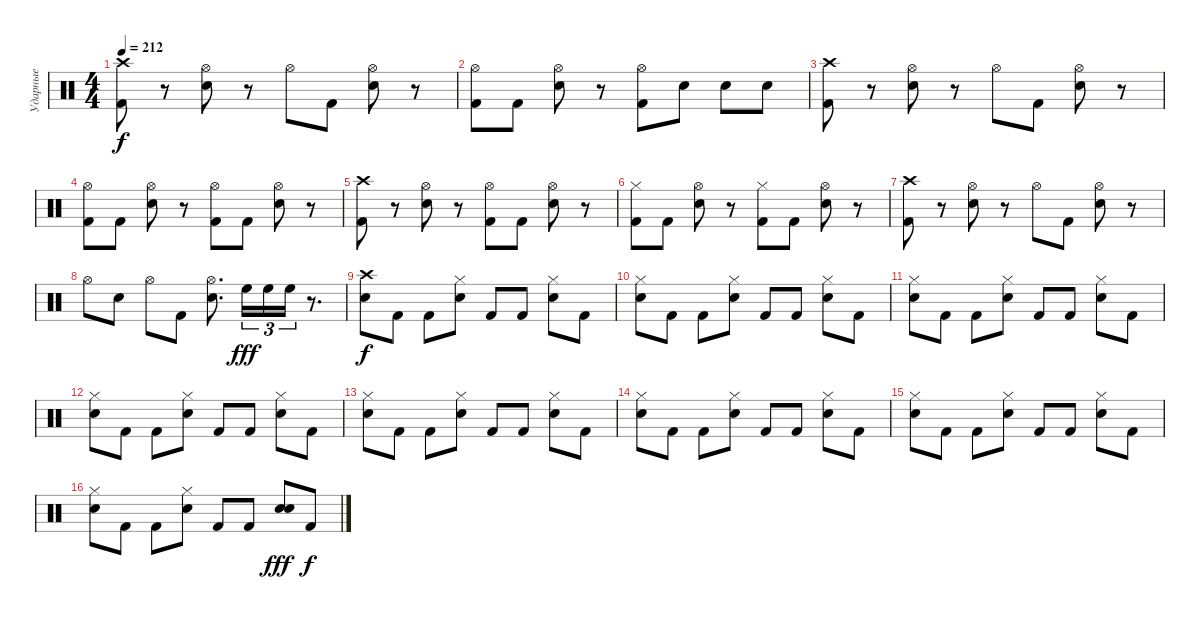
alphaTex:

\track ("Ударные" "Ударные") {instrument percussion}
\staff {score}
\articulation defaults
\ts (4 4)
\tempo 212
\clef neutral
\ks c
("Crash high (hit)" "Kick (hit) 2").8{dy f} r.8 ("Hi-Hat (open)" "Electric Snare (hit)").8 r.8 "Hi-Hat (open)".8 "Kick (hit) 2".8 ("Hi-Hat (open)" "Electric Snare (hit)").8 r.8 |
("Hi-Hat (open)" "Kick (hit) 2").8 "Kick (hit) 2".8 ("Hi-Hat (open)" "Electric Snare (hit)").8 r.8 ("Hi-Hat (open)" "Kick (hit) 2").8 "Electric Snare (hit)".8 "Electric Snare (hit)".8 "Electric Snare (hit)".8 |
("Crash high (hit)" "Kick (hit) 2").8 r.8 ("Hi-Hat (open)" "Electric Snare (hit)").8 r.8 "Hi-Hat (open)".8 "Kick (hit) 2".8 ("Hi-Hat (open)" "Electric Snare (hit)").8 r.8 |
("Hi-Hat (open)" "Kick (hit) 2").8 "Kick (hit) 2".8 ("Hi-Hat (open)" "Electric Snare (hit)").8 r.8 ("Hi-Hat (open)" "Kick (hit) 2").8 "Kick (hit) 2".8 ("Hi-Hat (open)" "Electric Snare (hit)").8 r.8 |
("Crash high (hit)" "Kick (hit) 2").8 r.8 ("Hi-Hat (open)" "Electric Snare (hit)").8 r.8 ("Hi-Hat (open)" "Kick (hit) 2").8 "Kick (hit) 2".8 ("Hi-Hat (open)" "Electric Snare (hit)").8 r.8 |
("Hi-Hat (closed)" "Kick (hit) 2").8 "Kick (hit) 2".8 ("Hi-Hat (open)" "Electric Snare (hit)").8 r.8 ("Hi-Hat (closed)" "Kick (hit) 2").8 "Kick (hit) 2".8 ("Hi-Hat (open)" "Electric Snare (hit)").8 r.8 |
("Crash high (hit)" "Kick (hit) 2").8 r.8 ("Hi-Hat (open)" "Electric Snare (hit)").8 r.8 "Hi-Hat (open)".8 "Kick (hit) 2".8 ("Hi-Hat (open)" "Electric Snare (hit)").8 r.8 |
"Hi-Hat (open)".8 "Electric Snare (hit)".8 "Hi-Hat (open)".8 "Kick (hit) 2".8 ("Hi-Hat (open)" "Electric Snare (hit)").8{d} "High Floor Tom (hit)".16{tu (3 2) dy fff} "High Floor Tom (hit)".16{tu (3 2)} "High Floor Tom (hit)".16{tu (3 2)} r.8{d} |
("Crash high (hit)" "Electric Snare (hit)").8{dy f} "Kick (hit) 2".8 "Kick (hit) 2".8 ("Hi-Hat (closed)" "Electric Snare (hit)").8 "Kick (hit) 2".8 "Kick (hit) 2".8 ("Hi-Hat (closed)" "Electric Snare (hit)").8 "Kick (hit) 2".8 |
("Hi-Hat (closed)" "Electric Snare (hit)").8 "Kick (hit) 2".8 "Kick (hit) 2".8 ("Hi-Hat (closed)" "Electric Snare (hit)").8 "Kick (hit) 2".8 "Kick (hit) 2".8 ("Hi-Hat (closed)" "Electric Snare (hit)").8 "Kick (hit) 2".8 |
("Hi-Hat (closed)" "Electric Snare (hit)").8 "Kick (hit) 2".8 "Kick (hit) 2".8 ("Hi-Hat (closed)" "Electric Snare (hit)").8 "Kick (hit) 2".8 "Kick (hit) 2".8 ("Hi-Hat (closed)" "Electric Snare (hit)").8 "Kick (hit) 2".8 |
("Hi-Hat (closed)" "Electric Snare (hit)").8 "Kick (hit) 2".8 "Kick (hit) 2".8 ("Hi-Hat (closed)" "Electric Snare (hit)").8 "Kick (hit) 2".8 "Kick (hit) 2".8 ("Hi-Hat (closed)" "Electric Snare (hit)").8 "Kick (hit) 2".8 |
("Hi-Hat (closed)" "Electric Snare (hit)").8 "Kick (hit) 2".8 "Kick (hit) 2".8 ("Hi-Hat (closed)" "Electric Snare (hit)").8 "Kick (hit) 2".8 "Kick (hit) 2".8 ("Hi-Hat (closed)" "Electric Snare (hit)").8 "Kick (hit) 2".8 |
("Hi-Hat (closed)" "Electric Snare (hit)").8 "Kick (hit) 2".8 "Kick (hit) 2".8 ("Hi-Hat (closed)" "Electric Snare (hit)").8 "Kick (hit) 2".8 "Kick (hit) 2".8 ("Hi-Hat (closed)" "Electric Snare (hit)").8 "Kick (hit) 2".8 |
("Hi-Hat (closed)" "Electric Snare (hit)").8 "Kick (hit) 2".8 "Kick (hit) 2".8 ("Hi-Hat (closed)" "Electric Snare (hit)").8 "Kick (hit) 2".8 "Kick (hit) 2".8 ("Hi-Hat (closed)" "Electric Snare (hit)").8 "Kick (hit) 2".8 |
("Hi-Hat (closed)" "Electric Snare (hit)").8 "Kick (hit) 2".8 "Kick (hit) 2".8 ("Hi-Hat (closed)" "Electric Snare (hit)").8 "Kick (hit) 2".8 "Kick (hit) 2".8 ("Electric Snare (hit)" "Electric Snare (hit)").8{dy fff} "Kick (hit) 2".8{dy f}
